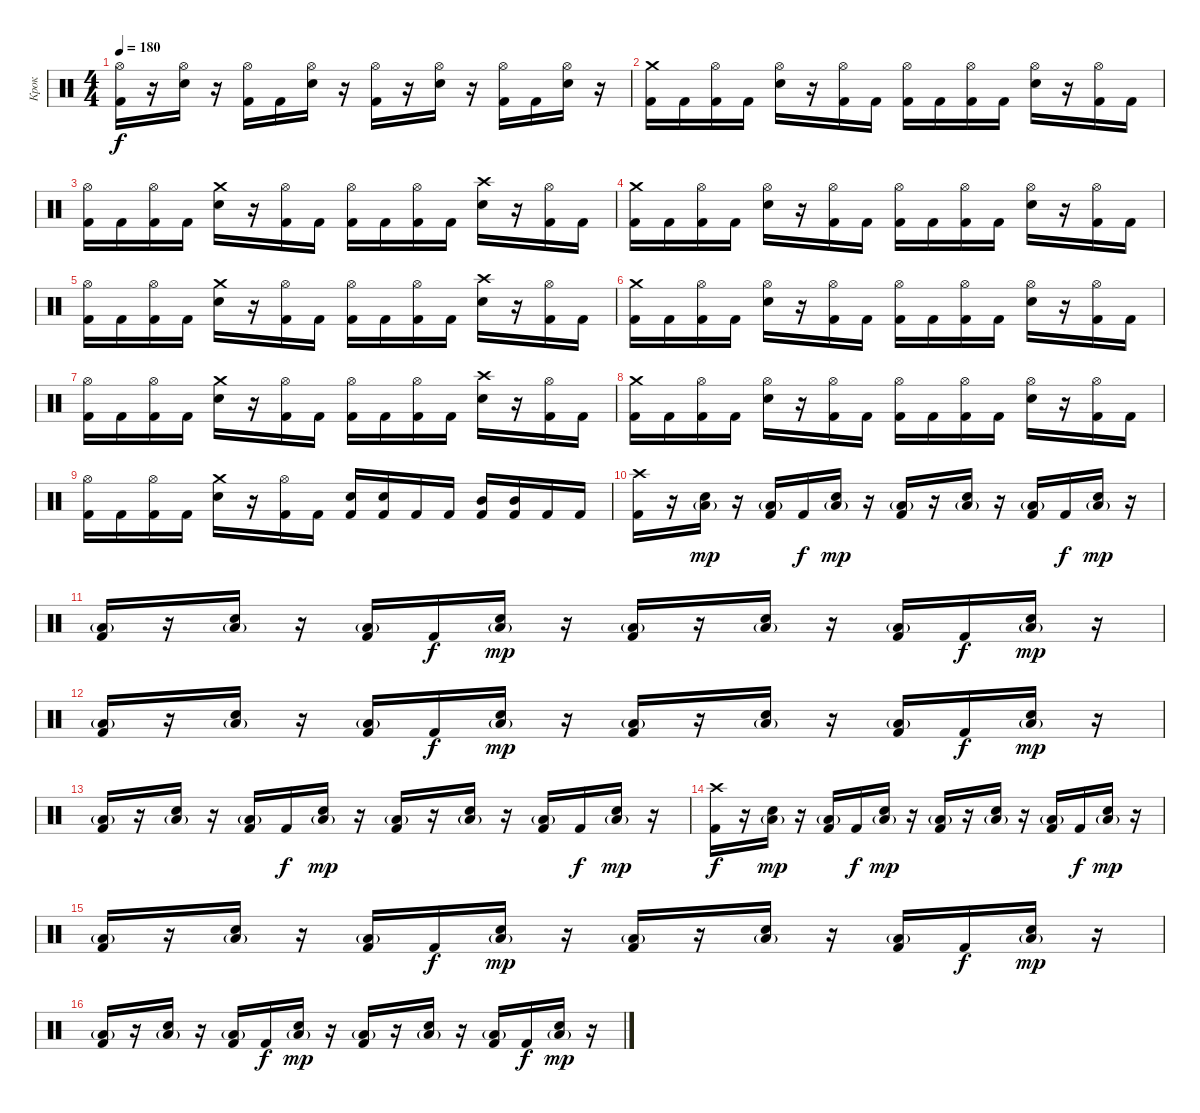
\track ("Крок" "Крок") {instrument percussion}
\staff {score}
\articulation defaults
\ts (4 4)
\tempo 180
\clef neutral
\ks c
("Kick (hit) 2" "Hi-Hat (open)").16{dy f} r.16 ("Electric Snare (hit)" "Hi-Hat (open)").16 r.16 ("Kick (hit) 2" "Hi-Hat (open)").16 "Kick (hit) 2".16 ("Electric Snare (hit)" "Hi-Hat (open)").16 r.16 ("Kick (hit) 2" "Hi-Hat (open)").16 r.16 ("Electric Snare (hit)" "Hi-Hat (open)").16 r.16 ("Kick (hit) 2" "Hi-Hat (open)").16 "Kick (hit) 2".16 ("Electric Snare (hit)" "Hi-Hat (open)").16 r.16 |
("Kick (hit) 2" "Crash medium (hit)").16 "Kick (hit) 2".16 ("Kick (hit) 2" "Hi-Hat (open)").16 "Kick (hit) 2".16 ("Electric Snare (hit)" "Hi-Hat (open)").16 r.16 ("Kick (hit) 2" "Hi-Hat (open)").16 "Kick (hit) 2".16 ("Kick (hit) 2" "Hi-Hat (open)").16 "Kick (hit) 2".16 ("Kick (hit) 2" "Hi-Hat (open)").16 "Kick (hit) 2".16 ("Electric Snare (hit)" "Hi-Hat (open)").16 r.16 ("Kick (hit) 2" "Hi-Hat (open)").16 "Kick (hit) 2".16 |
("Kick (hit) 2" "Hi-Hat (open)").16 "Kick (hit) 2".16 ("Kick (hit) 2" "Hi-Hat (open)").16 "Kick (hit) 2".16 ("Electric Snare (hit)" "Crash medium (hit)").16 r.16 ("Kick (hit) 2" "Hi-Hat (open)").16 "Kick (hit) 2".16 ("Kick (hit) 2" "Hi-Hat (open)").16 "Kick (hit) 2".16 ("Kick (hit) 2" "Hi-Hat (open)").16 "Kick (hit) 2".16 ("Electric Snare (hit)" "Crash high (hit)").16 r.16 ("Kick (hit) 2" "Hi-Hat (open)").16 "Kick (hit) 2".16 |
("Kick (hit) 2" "Crash medium (hit)").16 "Kick (hit) 2".16 ("Kick (hit) 2" "Hi-Hat (open)").16 "Kick (hit) 2".16 ("Electric Snare (hit)" "Hi-Hat (open)").16 r.16 ("Kick (hit) 2" "Hi-Hat (open)").16 "Kick (hit) 2".16 ("Kick (hit) 2" "Hi-Hat (open)").16 "Kick (hit) 2".16 ("Kick (hit) 2" "Hi-Hat (open)").16 "Kick (hit) 2".16 ("Electric Snare (hit)" "Hi-Hat (open)").16 r.16 ("Kick (hit) 2" "Hi-Hat (open)").16 "Kick (hit) 2".16 |
("Kick (hit) 2" "Hi-Hat (open)").16 "Kick (hit) 2".16 ("Kick (hit) 2" "Hi-Hat (open)").16 "Kick (hit) 2".16 ("Electric Snare (hit)" "Crash medium (hit)").16 r.16 ("Kick (hit) 2" "Hi-Hat (open)").16 "Kick (hit) 2".16 ("Kick (hit) 2" "Hi-Hat (open)").16 "Kick (hit) 2".16 ("Kick (hit) 2" "Hi-Hat (open)").16 "Kick (hit) 2".16 ("Electric Snare (hit)" "Crash high (hit)").16 r.16 ("Kick (hit) 2" "Hi-Hat (open)").16 "Kick (hit) 2".16 |
("Kick (hit) 2" "Crash medium (hit)").16 "Kick (hit) 2".16 ("Kick (hit) 2" "Hi-Hat (open)").16 "Kick (hit) 2".16 ("Electric Snare (hit)" "Hi-Hat (open)").16 r.16 ("Kick (hit) 2" "Hi-Hat (open)").16 "Kick (hit) 2".16 ("Kick (hit) 2" "Hi-Hat (open)").16 "Kick (hit) 2".16 ("Kick (hit) 2" "Hi-Hat (open)").16 "Kick (hit) 2".16 ("Electric Snare (hit)" "Hi-Hat (open)").16 r.16 ("Kick (hit) 2" "Hi-Hat (open)").16 "Kick (hit) 2".16 |
("Kick (hit) 2" "Hi-Hat (open)").16 "Kick (hit) 2".16 ("Kick (hit) 2" "Hi-Hat (open)").16 "Kick (hit) 2".16 ("Electric Snare (hit)" "Crash medium (hit)").16 r.16 ("Kick (hit) 2" "Hi-Hat (open)").16 "Kick (hit) 2".16 ("Kick (hit) 2" "Hi-Hat (open)").16 "Kick (hit) 2".16 ("Kick (hit) 2" "Hi-Hat (open)").16 "Kick (hit) 2".16 ("Electric Snare (hit)" "Crash high (hit)").16 r.16 ("Kick (hit) 2" "Hi-Hat (open)").16 "Kick (hit) 2".16 |
("Kick (hit) 2" "Crash medium (hit)").16 "Kick (hit) 2".16 ("Kick (hit) 2" "Hi-Hat (open)").16 "Kick (hit) 2".16 ("Electric Snare (hit)" "Hi-Hat (open)").16 r.16 ("Kick (hit) 2" "Hi-Hat (open)").16 "Kick (hit) 2".16 ("Kick (hit) 2" "Hi-Hat (open)").16 "Kick (hit) 2".16 ("Kick (hit) 2" "Hi-Hat (open)").16 "Kick (hit) 2".16 ("Electric Snare (hit)" "Hi-Hat (open)").16 r.16 ("Kick (hit) 2" "Hi-Hat (open)").16 "Kick (hit) 2".16 |
("Kick (hit) 2" "Hi-Hat (open)").16 "Kick (hit) 2".16 ("Kick (hit) 2" "Hi-Hat (open)").16 "Kick (hit) 2".16 ("Electric Snare (hit)" "Crash medium (hit)").16 r.16 ("Kick (hit) 2" "Hi-Hat (open)").16 "Kick (hit) 2".16 ("Kick (hit) 2" "Electric Snare (hit)").16 ("Kick (hit) 2" "Electric Snare (hit)").16 "Kick (hit) 2".16 "Kick (hit) 2".16 ("Kick (hit) 2" "Mid Tom (hit)").16 ("Kick (hit) 2" "Mid Tom (hit)").16 "Kick (hit) 2".16 "Kick (hit) 2".16 |
("Kick (hit) 2" "Crash high (hit)").16 r.16 ("Electric Snare (hit)" "Low Floor Tom (hit)"{g}).16{dy mp} r.16 ("Kick (hit) 2" "Low Floor Tom (hit)"{g}).16 "Kick (hit) 2".16{dy f} ("Electric Snare (hit)" "Low Floor Tom (hit)"{g}).16{dy mp} r.16 ("Kick (hit) 2" "Low Floor Tom (hit)"{g}).16 r.16 ("Electric Snare (hit)" "Low Floor Tom (hit)"{g}).16 r.16 ("Kick (hit) 2" "Low Floor Tom (hit)"{g}).16 "Kick (hit) 2".16{dy f} ("Electric Snare (hit)" "Low Floor Tom (hit)"{g}).16{dy mp} r.16 |
("Kick (hit) 2" "Low Floor Tom (hit)"{g}).16 r.16 ("Electric Snare (hit)" "Low Floor Tom (hit)"{g}).16 r.16 ("Kick (hit) 2" "Low Floor Tom (hit)"{g}).16 "Kick (hit) 2".16{dy f} ("Electric Snare (hit)" "Low Floor Tom (hit)"{g}).16{dy mp} r.16 ("Kick (hit) 2" "Low Floor Tom (hit)"{g}).16 r.16 ("Electric Snare (hit)" "Low Floor Tom (hit)"{g}).16 r.16 ("Kick (hit) 2" "Low Floor Tom (hit)"{g}).16 "Kick (hit) 2".16{dy f} ("Electric Snare (hit)" "Low Floor Tom (hit)"{g}).16{dy mp} r.16 |
("Kick (hit) 2" "Low Floor Tom (hit)"{g}).16 r.16 ("Electric Snare (hit)" "Low Floor Tom (hit)"{g}).16 r.16 ("Kick (hit) 2" "Low Floor Tom (hit)"{g}).16 "Kick (hit) 2".16{dy f} ("Electric Snare (hit)" "Low Floor Tom (hit)"{g}).16{dy mp} r.16 ("Kick (hit) 2" "Low Floor Tom (hit)"{g}).16 r.16 ("Electric Snare (hit)" "Low Floor Tom (hit)"{g}).16 r.16 ("Kick (hit) 2" "Low Floor Tom (hit)"{g}).16 "Kick (hit) 2".16{dy f} ("Electric Snare (hit)" "Low Floor Tom (hit)"{g}).16{dy mp} r.16 |
("Kick (hit) 2" "Low Floor Tom (hit)"{g}).16 r.16 ("Electric Snare (hit)" "Low Floor Tom (hit)"{g}).16 r.16 ("Kick (hit) 2" "Low Floor Tom (hit)"{g}).16 "Kick (hit) 2".16{dy f} ("Electric Snare (hit)" "Low Floor Tom (hit)"{g}).16{dy mp} r.16 ("Kick (hit) 2" "Low Floor Tom (hit)"{g}).16 r.16 ("Electric Snare (hit)" "Low Floor Tom (hit)"{g}).16 r.16 ("Kick (hit) 2" "Low Floor Tom (hit)"{g}).16 "Kick (hit) 2".16{dy f} ("Electric Snare (hit)" "Low Floor Tom (hit)"{g}).16{dy mp} r.16 |
("Kick (hit) 2" "Crash high (hit)").16{dy f} r.16 ("Electric Snare (hit)" "Low Floor Tom (hit)"{g}).16{dy mp} r.16 ("Kick (hit) 2" "Low Floor Tom (hit)"{g}).16 "Kick (hit) 2".16{dy f} ("Electric Snare (hit)" "Low Floor Tom (hit)"{g}).16{dy mp} r.16 ("Kick (hit) 2" "Low Floor Tom (hit)"{g}).16 r.16 ("Electric Snare (hit)" "Low Floor Tom (hit)"{g}).16 r.16 ("Kick (hit) 2" "Low Floor Tom (hit)"{g}).16 "Kick (hit) 2".16{dy f} ("Electric Snare (hit)" "Low Floor Tom (hit)"{g}).16{dy mp} r.16 |
("Kick (hit) 2" "Low Floor Tom (hit)"{g}).16 r.16 ("Electric Snare (hit)" "Low Floor Tom (hit)"{g}).16 r.16 ("Kick (hit) 2" "Low Floor Tom (hit)"{g}).16 "Kick (hit) 2".16{dy f} ("Electric Snare (hit)" "Low Floor Tom (hit)"{g}).16{dy mp} r.16 ("Kick (hit) 2" "Low Floor Tom (hit)"{g}).16 r.16 ("Electric Snare (hit)" "Low Floor Tom (hit)"{g}).16 r.16 ("Kick (hit) 2" "Low Floor Tom (hit)"{g}).16 "Kick (hit) 2".16{dy f} ("Electric Snare (hit)" "Low Floor Tom (hit)"{g}).16{dy mp} r.16 |
("Kick (hit) 2" "Low Floor Tom (hit)"{g}).16 r.16 ("Electric Snare (hit)" "Low Floor Tom (hit)"{g}).16 r.16 ("Kick (hit) 2" "Low Floor Tom (hit)"{g}).16 "Kick (hit) 2".16{dy f} ("Electric Snare (hit)" "Low Floor Tom (hit)"{g}).16{dy mp} r.16 ("Kick (hit) 2" "Low Floor Tom (hit)"{g}).16 r.16 ("Electric Snare (hit)" "Low Floor Tom (hit)"{g}).16 r.16 ("Kick (hit) 2" "Low Floor Tom (hit)"{g}).16 "Kick (hit) 2".16{dy f} ("Electric Snare (hit)" "Low Floor Tom (hit)"{g}).16{dy mp} r.16
